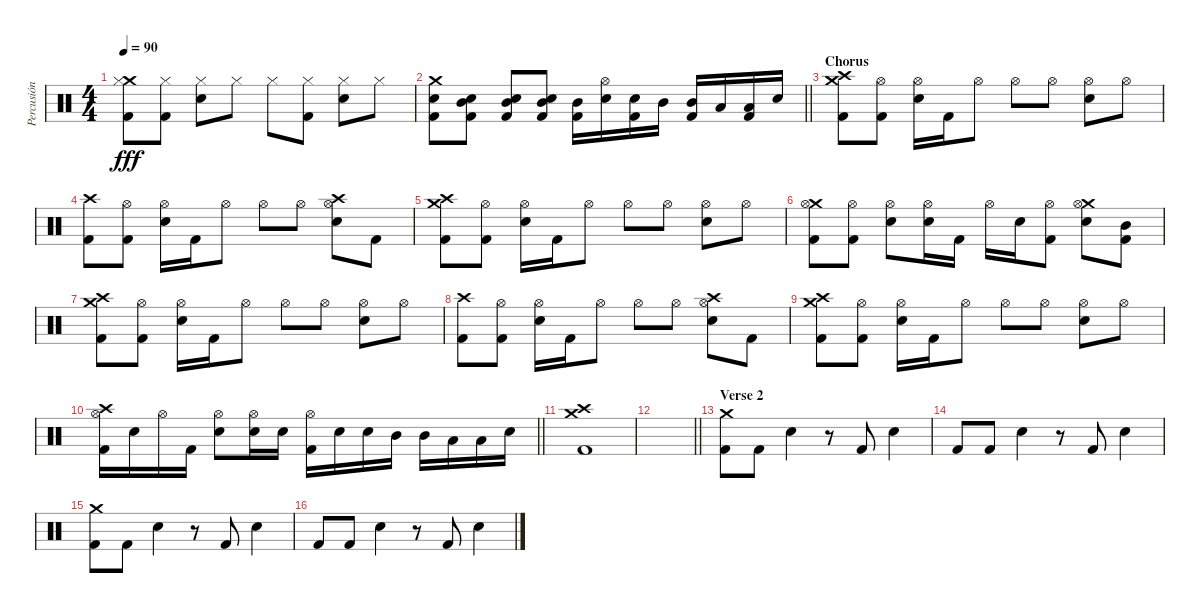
\track ("Percusión" "Percusión") {instrument percussion}
\staff {score}
\articulation defaults
\ts (4 4)
\tempo 90
\clef neutral
\ks c
("Crash medium (hit)" "Hi-Hat (closed)" "Kick (hit) 2").8{dy fff} ("Hi-Hat (closed)" "Kick (hit) 2").8 ("Hi-Hat (closed)" "Electric Snare (hit)").8 "Hi-Hat (closed)".8 "Hi-Hat (closed)".8 ("Hi-Hat (closed)" "Kick (hit) 2").8 ("Hi-Hat (closed)" "Electric Snare (hit)").8 "Hi-Hat (closed)".8 |
\barLineRight lightlight
("Crash medium (hit)" "Electric Snare (hit)" "Kick (hit) 2").8 ("Electric Snare (hit)" "Mid Tom (hit)" "Kick (hit) 2").8 ("Electric Snare (hit)" "Mid Tom (hit)" "Kick (hit) 2").8 ("Electric Snare (hit)" "Mid Tom (hit)" "Kick (hit) 2").8 ("Mid Tom (hit)" "Kick (hit) 2").16 ("Hi-Hat (open)" "Electric Snare (hit)").16 ("Electric Snare (hit)" "Kick (hit) 2").16 "Mid Tom (hit)".16 ("Mid Tom (hit)" "Kick (hit) 2").16 "Low Tom (hit)".16 ("Low Tom (hit)" "Kick (hit) 2").16 "Electric Snare (hit)".16 |
\section ("" "Chorus")
("Crash medium (hit)" "Crash high (hit)" "Kick (hit) 2").8 ("Hi-Hat (open)" "Kick (hit) 2").8 ("Hi-Hat (open)" "Electric Snare (hit)").16 "Kick (hit) 2".16 "Hi-Hat (open)".8 "Hi-Hat (open)".8 "Hi-Hat (open)".8 ("Hi-Hat (open)" "Electric Snare (hit)").8 "Hi-Hat (open)".8 |
("Crash high (hit)" "Kick (hit) 2").8 ("Hi-Hat (open)" "Kick (hit) 2").8 ("Hi-Hat (open)" "Electric Snare (hit)").16 "Kick (hit) 2".16 "Hi-Hat (open)".8 "Hi-Hat (open)".8 "Hi-Hat (open)".8 ("Crash high (hit)" "Hi-Hat (open)" "Electric Snare (hit)").8 "Kick (hit) 2".8 |
("Crash medium (hit)" "Crash high (hit)" "Kick (hit) 2").8 ("Hi-Hat (open)" "Kick (hit) 2").8 ("Hi-Hat (open)" "Electric Snare (hit)").16 "Kick (hit) 2".16 "Hi-Hat (open)".8 "Hi-Hat (open)".8 "Hi-Hat (open)".8 ("Hi-Hat (open)" "Electric Snare (hit)").8 "Hi-Hat (open)".8 |
("Crash medium (hit)" "Hi-Hat (open)" "Kick (hit) 2").8 ("Hi-Hat (open)" "Kick (hit) 2").8 ("Hi-Hat (open)" "Electric Snare (hit)").8 ("Hi-Hat (open)" "Electric Snare (hit)").16 "Kick (hit) 2".16 "Hi-Hat (open)".16 "Electric Snare (hit)".16 ("Hi-Hat (open)" "Kick (hit) 2").8 ("Crash medium (hit)" "Hi-Hat (open)" "Electric Snare (hit)").8 ("Mid Tom (hit)" "Kick (hit) 2").8 |
("Crash medium (hit)" "Crash high (hit)" "Kick (hit) 2").8 ("Hi-Hat (open)" "Kick (hit) 2").8 ("Hi-Hat (open)" "Electric Snare (hit)").16 "Kick (hit) 2".16 "Hi-Hat (open)".8 "Hi-Hat (open)".8 "Hi-Hat (open)".8 ("Hi-Hat (open)" "Electric Snare (hit)").8 "Hi-Hat (open)".8 |
("Crash high (hit)" "Kick (hit) 2").8 ("Hi-Hat (open)" "Kick (hit) 2").8 ("Hi-Hat (open)" "Electric Snare (hit)").16 "Kick (hit) 2".16 "Hi-Hat (open)".8 "Hi-Hat (open)".8 "Hi-Hat (open)".8 ("Crash high (hit)" "Hi-Hat (open)" "Electric Snare (hit)").8 "Kick (hit) 2".8 |
("Crash medium (hit)" "Crash high (hit)" "Kick (hit) 2").8 ("Hi-Hat (open)" "Kick (hit) 2").8 ("Hi-Hat (open)" "Electric Snare (hit)").16 "Kick (hit) 2".16 "Hi-Hat (open)".8 "Hi-Hat (open)".8 "Hi-Hat (open)".8 ("Hi-Hat (open)" "Electric Snare (hit)").8 "Hi-Hat (open)".8 |
\barLineRight lightlight
("Crash high (hit)" "Hi-Hat (open)" "Kick (hit) 2").16 "Electric Snare (hit)".16 "Hi-Hat (open)".16 "Kick (hit) 2".16 ("Hi-Hat (open)" "Electric Snare (hit)").8 ("Hi-Hat (open)" "Electric Snare (hit)").16 "Electric Snare (hit)".16 ("Hi-Hat (open)" "Kick (hit) 2").16 "Electric Snare (hit)".16 "Electric Snare (hit)".16 "Mid Tom (hit)".16 "Mid Tom (hit)".16 "Low Tom (hit)".16 "Low Tom (hit)".16 "Electric Snare (hit)".16 |
("Crash medium (hit)" "Crash high (hit)" "Kick (hit) 2").1 |
\barLineRight lightlight
|
\section ("" "Verse 2")
("Crash medium (hit)" "Kick (hit) 2").8 "Kick (hit) 2".8 "Electric Snare (hit)".4 r.8 "Kick (hit) 2".8 "Electric Snare (hit)".4 |
"Kick (hit) 2".8 "Kick (hit) 2".8 "Electric Snare (hit)".4 r.8 "Kick (hit) 2".8 "Electric Snare (hit)".4 |
("Crash medium (hit)" "Kick (hit) 2").8 "Kick (hit) 2".8 "Electric Snare (hit)".4 r.8 "Kick (hit) 2".8 "Electric Snare (hit)".4 |
"Kick (hit) 2".8 "Kick (hit) 2".8 "Electric Snare (hit)".4 r.8 "Kick (hit) 2".8 "Electric Snare (hit)".4
